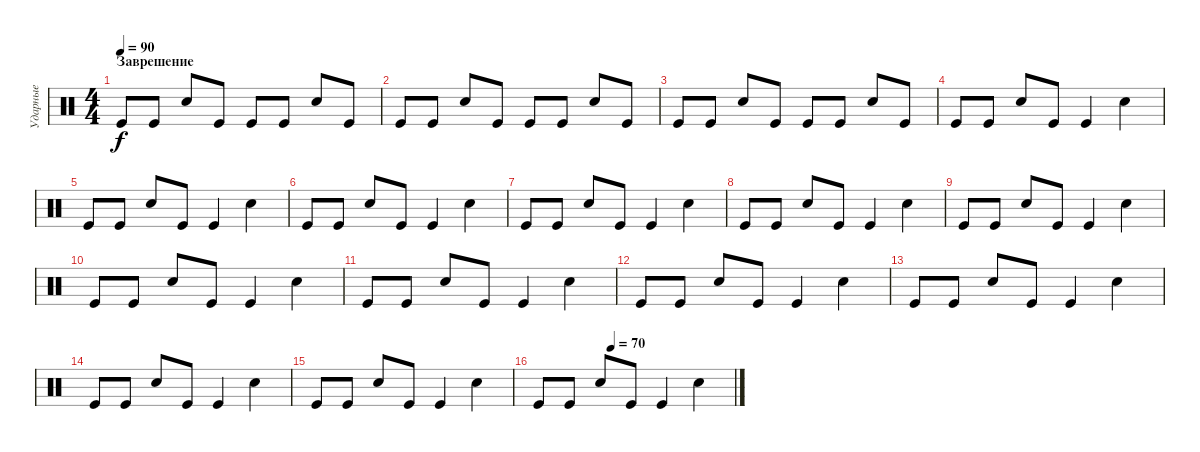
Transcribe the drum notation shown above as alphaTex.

\track ("Ударные" "Ударные") {instrument percussion}
\staff
\articulation defaults
\ts (4 4)
\section ("" "Заврешение")
\tempo 90
\clef neutral
\ks c "Kick (hit)".8{dy f} "Kick (hit)".8 "Snare (hit) 2".8 "Kick (hit)".8 "Kick (hit)".8 "Kick (hit)".8 "Snare (hit) 2".8 "Kick (hit)".8
|
"Kick (hit)".8 "Kick (hit)".8 "Snare (hit) 2".8 "Kick (hit)".8 "Kick (hit)".8 "Kick (hit)".8 "Snare (hit) 2".8 "Kick (hit)".8 |
"Kick (hit)".8 "Kick (hit)".8 "Snare (hit) 2".8 "Kick (hit)".8 "Kick (hit)".8 "Kick (hit)".8 "Snare (hit) 2".8 "Kick (hit)".8 |
"Kick (hit)".8 "Kick (hit)".8 "Snare (hit) 2".8 "Kick (hit)".8 "Kick (hit)".4 "Snare (hit) 2".4 |
"Kick (hit)".8 "Kick (hit)".8 "Snare (hit) 2".8 "Kick (hit)".8 "Kick (hit)".4 "Snare (hit) 2".4 |
"Kick (hit)".8 "Kick (hit)".8 "Snare (hit) 2".8 "Kick (hit)".8 "Kick (hit)".4 "Snare (hit) 2".4 |
"Kick (hit)".8 "Kick (hit)".8 "Snare (hit) 2".8 "Kick (hit)".8 "Kick (hit)".4 "Snare (hit) 2".4 |
"Kick (hit)".8 "Kick (hit)".8 "Snare (hit) 2".8 "Kick (hit)".8 "Kick (hit)".4 "Snare (hit) 2".4 |
"Kick (hit)".8 "Kick (hit)".8 "Snare (hit) 2".8 "Kick (hit)".8 "Kick (hit)".4 "Snare (hit) 2".4 |
"Kick (hit)".8 "Kick (hit)".8 "Snare (hit) 2".8 "Kick (hit)".8 "Kick (hit)".4 "Snare (hit) 2".4 |
"Kick (hit)".8 "Kick (hit)".8 "Snare (hit) 2".8 "Kick (hit)".8 "Kick (hit)".4 "Snare (hit) 2".4 |
"Kick (hit)".8 "Kick (hit)".8 "Snare (hit) 2".8 "Kick (hit)".8 "Kick (hit)".4 "Snare (hit) 2".4 |
"Kick (hit)".8 "Kick (hit)".8 "Snare (hit) 2".8 "Kick (hit)".8 "Kick (hit)".4 "Snare (hit) 2".4 |
"Kick (hit)".8 "Kick (hit)".8 "Snare (hit) 2".8 "Kick (hit)".8 "Kick (hit)".4 "Snare (hit) 2".4 |
"Kick (hit)".8 "Kick (hit)".8 "Snare (hit) 2".8 "Kick (hit)".8 "Kick (hit)".4 "Snare (hit) 2".4 |
\tempo (70 0.375)
"Kick (hit)".8 "Kick (hit)".8 "Snare (hit) 2".8 "Kick (hit)".8 "Kick (hit)".4 "Snare (hit) 2".4
